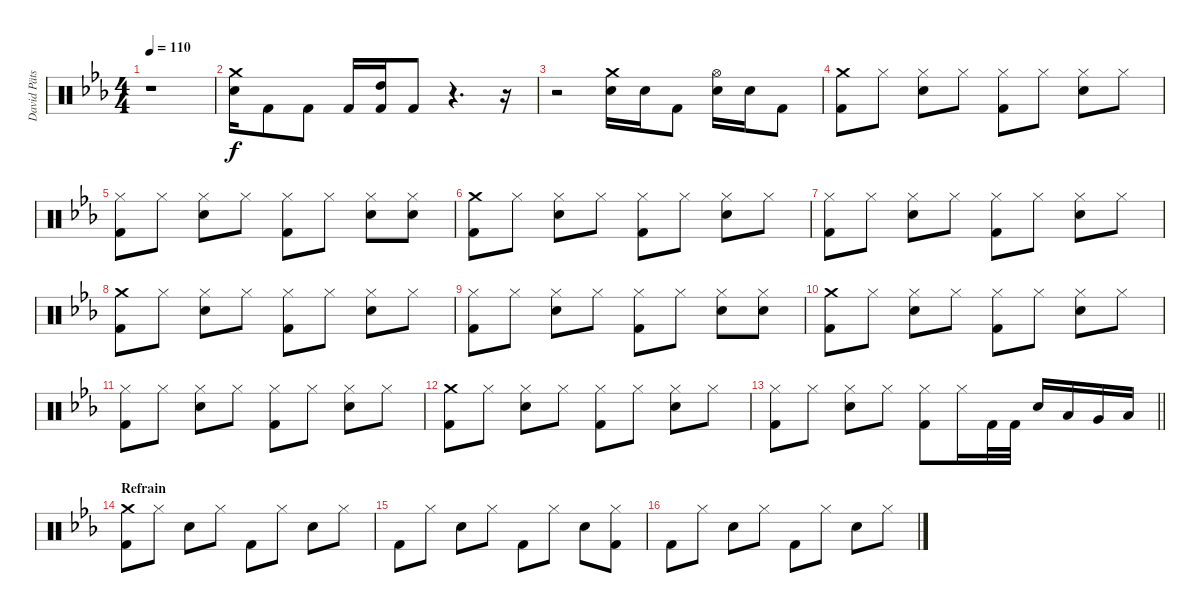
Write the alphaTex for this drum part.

\track ("David Pätsch" "David Päts") {instrument percussion}
\staff {score}
\articulation defaults
\ts (4 4)
\tempo 110
\clef neutral
\ks cminor
r.1{dy f} |
("Snare (hit) 2" "Crash medium (hit)").16 "Kick (hit) 2".8 "Kick (hit) 2".8 "Kick (hit) 2".16 ("High Tom (hit)" "Kick (hit) 2").16 "Kick (hit) 2".8 r.4{d} r.16 |
r.2 ("Snare (hit) 2" "Crash medium (hit)").16 "Snare (hit) 2".16 "Kick (hit) 2".8 ("Snare (hit) 2" "Hi-Hat (open)").16 "Snare (hit) 2".16 "Kick (hit) 2".8 |
("Kick (hit) 2" "Crash medium (hit)").8 "Hi-Hat (closed)".8 ("Snare (hit) 2" "Hi-Hat (closed)").8 "Hi-Hat (closed)".8 ("Kick (hit) 2" "Hi-Hat (closed)").8 "Hi-Hat (closed)".8 ("Snare (hit) 2" "Hi-Hat (closed)").8 "Hi-Hat (closed)".8 |
("Kick (hit) 2" "Hi-Hat (closed)").8 "Hi-Hat (closed)".8 ("Snare (hit) 2" "Hi-Hat (closed)").8 "Hi-Hat (closed)".8 ("Kick (hit) 2" "Hi-Hat (closed)").8 "Hi-Hat (closed)".8 ("Snare (hit) 2" "Hi-Hat (closed)").8 ("Snare (hit) 2" "Hi-Hat (closed)").8 |
("Kick (hit) 2" "Crash medium (hit)").8 "Hi-Hat (closed)".8 ("Snare (hit) 2" "Hi-Hat (closed)").8 "Hi-Hat (closed)".8 ("Kick (hit) 2" "Hi-Hat (closed)").8 "Hi-Hat (closed)".8 ("Snare (hit) 2" "Hi-Hat (closed)").8 "Hi-Hat (closed)".8 |
("Kick (hit) 2" "Hi-Hat (closed)").8 "Hi-Hat (closed)".8 ("Snare (hit) 2" "Hi-Hat (closed)").8 "Hi-Hat (closed)".8 ("Kick (hit) 2" "Hi-Hat (closed)").8 "Hi-Hat (closed)".8 ("Snare (hit) 2" "Hi-Hat (closed)").8 "Hi-Hat (closed)".8 |
("Kick (hit) 2" "Crash medium (hit)").8 "Hi-Hat (closed)".8 ("Snare (hit) 2" "Hi-Hat (closed)").8 "Hi-Hat (closed)".8 ("Kick (hit) 2" "Hi-Hat (closed)").8 "Hi-Hat (closed)".8 ("Snare (hit) 2" "Hi-Hat (closed)").8 "Hi-Hat (closed)".8 |
("Kick (hit) 2" "Hi-Hat (closed)").8 "Hi-Hat (closed)".8 ("Snare (hit) 2" "Hi-Hat (closed)").8 "Hi-Hat (closed)".8 ("Kick (hit) 2" "Hi-Hat (closed)").8 "Hi-Hat (closed)".8 ("Snare (hit) 2" "Hi-Hat (closed)").8 ("Snare (hit) 2" "Hi-Hat (closed)").8 |
("Kick (hit) 2" "Crash medium (hit)").8 "Hi-Hat (closed)".8 ("Snare (hit) 2" "Hi-Hat (closed)").8 "Hi-Hat (closed)".8 ("Kick (hit) 2" "Hi-Hat (closed)").8 "Hi-Hat (closed)".8 ("Snare (hit) 2" "Hi-Hat (closed)").8 "Hi-Hat (closed)".8 |
("Kick (hit) 2" "Hi-Hat (closed)").8 "Hi-Hat (closed)".8 ("Snare (hit) 2" "Hi-Hat (closed)").8 "Hi-Hat (closed)".8 ("Kick (hit) 2" "Hi-Hat (closed)").8 "Hi-Hat (closed)".8 ("Snare (hit) 2" "Hi-Hat (closed)").8 "Hi-Hat (closed)".8 |
("Kick (hit) 2" "Crash medium (hit)").8 "Hi-Hat (closed)".8 ("Snare (hit) 2" "Hi-Hat (closed)").8 "Hi-Hat (closed)".8 ("Kick (hit) 2" "Hi-Hat (closed)").8 "Hi-Hat (closed)".8 ("Snare (hit) 2" "Hi-Hat (closed)").8 "Hi-Hat (closed)".8 |
\barLineRight lightlight
("Kick (hit) 2" "Hi-Hat (closed)").8 "Hi-Hat (closed)".8 ("Snare (hit) 2" "Hi-Hat (closed)").8 "Hi-Hat (closed)".8 ("Kick (hit) 2" "Hi-Hat (closed)").8 "Hi-Hat (closed)".16 "Kick (hit) 2".32 "Kick (hit) 2".32 "Snare (hit) 2".16 "Low Tom (hit)".16 "Very Low Tom (hit)".16 "Low Floor Tom (hit)".16 |
\section ("" "Refrain")
("Kick (hit) 2" "Crash medium (hit)").8 "Hi-Hat (closed)".8 "Snare (hit) 2".8 "Hi-Hat (closed)".8 "Kick (hit) 2".8 "Hi-Hat (closed)".8 "Snare (hit) 2".8 "Hi-Hat (closed)".8 |
"Kick (hit) 2".8 "Hi-Hat (closed)".8 "Snare (hit) 2".8 "Hi-Hat (closed)".8 "Kick (hit) 2".8 "Hi-Hat (closed)".8 "Snare (hit) 2".8 ("Kick (hit) 2" "Hi-Hat (closed)").8 |
"Kick (hit) 2".8 "Hi-Hat (closed)".8 "Snare (hit) 2".8 "Hi-Hat (closed)".8 "Kick (hit) 2".8 "Hi-Hat (closed)".8 "Snare (hit) 2".8 "Hi-Hat (closed)".8
